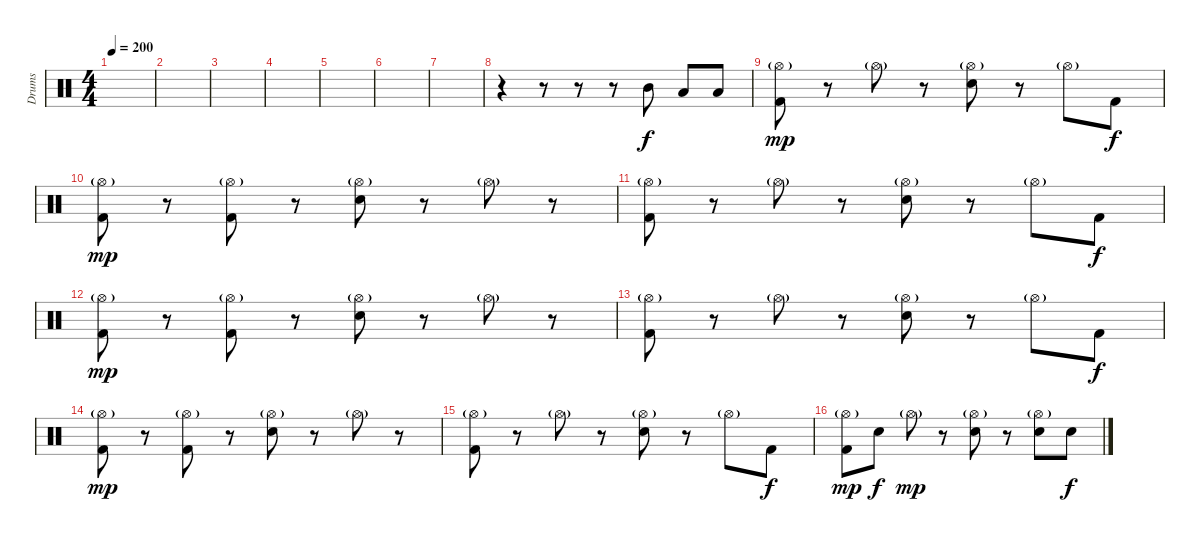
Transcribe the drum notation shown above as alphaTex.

\track ("Drums" "Drums") {instrument percussion}
\staff {score}
\articulation defaults
\ts (4 4)
\tempo 200
\clef neutral
\ks c
|
|
|
|
|
|
|
r.4 r.8 r.8 r.8 "Mid Tom (hit)".8 "Low Tom (hit)".8 "Low Floor Tom (hit)".8 |
("Hi-Hat (open)"{g} "Kick (hit) 2").8{dy mp} r.8 "Hi-Hat (open)"{g}.8 r.8 ("Hi-Hat (open)"{g} "Electric Snare (hit)").8 r.8 "Hi-Hat (open)"{g}.8 "Kick (hit) 2".8{dy f} |
("Hi-Hat (open)"{g} "Kick (hit) 2").8{dy mp} r.8 ("Hi-Hat (open)"{g} "Kick (hit) 2").8 r.8 ("Hi-Hat (open)"{g} "Electric Snare (hit)").8 r.8 "Hi-Hat (open)"{g}.8 r.8 |
("Hi-Hat (open)"{g} "Kick (hit) 2").8 r.8 "Hi-Hat (open)"{g}.8 r.8 ("Hi-Hat (open)"{g} "Electric Snare (hit)").8 r.8 "Hi-Hat (open)"{g}.8 "Kick (hit) 2".8{dy f} |
("Hi-Hat (open)"{g} "Kick (hit) 2").8{dy mp} r.8 ("Hi-Hat (open)"{g} "Kick (hit) 2").8 r.8 ("Hi-Hat (open)"{g} "Electric Snare (hit)").8 r.8 "Hi-Hat (open)"{g}.8 r.8 |
("Hi-Hat (open)"{g} "Kick (hit) 2").8 r.8 "Hi-Hat (open)"{g}.8 r.8 ("Hi-Hat (open)"{g} "Electric Snare (hit)").8 r.8 "Hi-Hat (open)"{g}.8 "Kick (hit) 2".8{dy f} |
("Hi-Hat (open)"{g} "Kick (hit) 2").8{dy mp} r.8 ("Hi-Hat (open)"{g} "Kick (hit) 2").8 r.8 ("Hi-Hat (open)"{g} "Electric Snare (hit)").8 r.8 "Hi-Hat (open)"{g}.8 r.8 |
("Hi-Hat (open)"{g} "Kick (hit) 2").8 r.8 "Hi-Hat (open)"{g}.8 r.8 ("Hi-Hat (open)"{g} "Electric Snare (hit)").8 r.8 "Hi-Hat (open)"{g}.8 "Kick (hit) 2".8{dy f} |
("Hi-Hat (open)"{g} "Kick (hit) 2").8{dy mp} "Electric Snare (hit)".8{dy f} "Hi-Hat (open)"{g}.8{dy mp} r.8 ("Hi-Hat (open)"{g} "Electric Snare (hit)").8 r.8 ("Hi-Hat (open)"{g} "Electric Snare (hit)").8 "Electric Snare (hit)".8{dy f}
